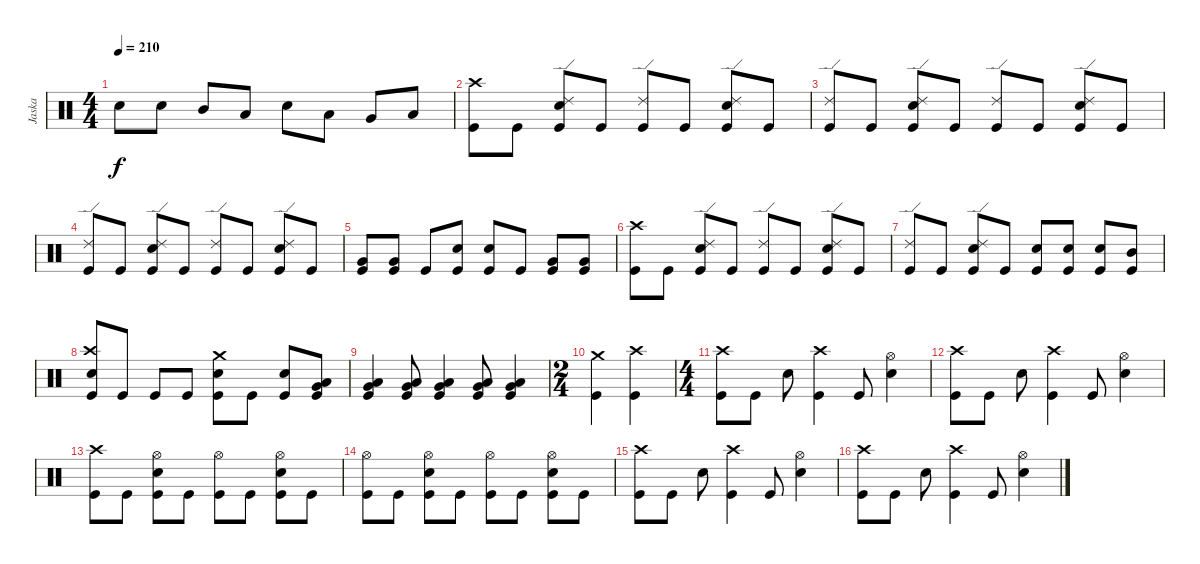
\track ("Jaska" "Jaska") {instrument percussion}
\staff {score}
\articulation defaults
\ts (4 4)
\tempo 210
\clef neutral
\ks c "Electric Snare (hit)".8{dy f} "Electric Snare (hit)".8 "Mid Tom (hit)".8 "Low Tom (hit)".8 "Electric Snare (hit)".8 "Low Tom (hit)".8 "Very Low Tom (hit)".8 "Low Floor Tom (hit)".8
|
("Crash high (hit)" "Kick (hit)").8 "Kick (hit)".8 ("Ride (edge) 2" "Electric Snare (hit)" "Kick (hit)").8 "Kick (hit)".8 ("Ride (edge) 2" "Kick (hit)").8 "Kick (hit)".8 ("Ride (edge) 2" "Electric Snare (hit)" "Kick (hit)").8 "Kick (hit)".8 |
("Ride (edge) 2" "Kick (hit)").8 "Kick (hit)".8 ("Ride (edge) 2" "Electric Snare (hit)" "Kick (hit)").8 "Kick (hit)".8 ("Ride (edge) 2" "Kick (hit)").8 "Kick (hit)".8 ("Ride (edge) 2" "Electric Snare (hit)" "Kick (hit)").8 "Kick (hit)".8 |
("Ride (edge) 2" "Kick (hit)").8 "Kick (hit)".8 ("Ride (edge) 2" "Electric Snare (hit)" "Kick (hit)").8 "Kick (hit)".8 ("Ride (edge) 2" "Kick (hit)").8 "Kick (hit)".8 ("Ride (edge) 2" "Electric Snare (hit)" "Kick (hit)").8 "Kick (hit)".8 |
("Very Low Tom (hit)" "Kick (hit)").8 ("Very Low Tom (hit)" "Kick (hit)").8 "Kick (hit)".8 ("Electric Snare (hit)" "Kick (hit)").8 ("Electric Snare (hit)" "Kick (hit)").8 "Kick (hit)".8 ("Very Low Tom (hit)" "Kick (hit)").8 ("Very Low Tom (hit)" "Kick (hit)").8 |
("Crash high (hit)" "Kick (hit)").8 "Kick (hit)".8 ("Ride (edge) 2" "Electric Snare (hit)" "Kick (hit)").8 "Kick (hit)".8 ("Ride (edge) 2" "Kick (hit)").8 "Kick (hit)".8 ("Ride (edge) 2" "Electric Snare (hit)" "Kick (hit)").8 "Kick (hit)".8 |
("Ride (edge) 2" "Kick (hit)").8 "Kick (hit)".8 ("Ride (edge) 2" "Electric Snare (hit)" "Kick (hit)").8 "Kick (hit)".8 ("Electric Snare (hit)" "Kick (hit)").8 ("Electric Snare (hit)" "Kick (hit)").8 ("Electric Snare (hit)" "Kick (hit)").8 ("Mid Tom (hit)" "Kick (hit)").8 |
("Crash high (hit)" "Electric Snare (hit)" "Kick (hit)").8 "Kick (hit)".8 "Kick (hit)".8 "Kick (hit)".8 ("Crash medium (hit)" "Electric Snare (hit)" "Kick (hit)").8 "Kick (hit)".8 ("Electric Snare (hit)" "Kick (hit)").8 ("Low Floor Tom (hit)" "Very Low Tom (hit)" "Kick (hit)").8 |
("Low Floor Tom (hit)" "Very Low Tom (hit)" "Kick (hit)").4 ("Low Floor Tom (hit)" "Very Low Tom (hit)" "Kick (hit)").8 ("Low Floor Tom (hit)" "Very Low Tom (hit)" "Kick (hit)").4 ("Low Floor Tom (hit)" "Very Low Tom (hit)" "Kick (hit)").8 ("Low Floor Tom (hit)" "Very Low Tom (hit)" "Kick (hit)").4 |
\ts (2 4)
("Crash medium (hit)" "Kick (hit)").4 ("Crash high (hit)" "Kick (hit)").4 |
\ts (4 4)
("Crash high (hit)" "Kick (hit)").8 "Kick (hit)".8 "Electric Snare (hit)".8 ("Crash high (hit)" "Kick (hit)").4 "Kick (hit)".8 ("Hi-Hat (open)" "Electric Snare (hit)").4 |
("Crash high (hit)" "Kick (hit)").8 "Kick (hit)".8 "Electric Snare (hit)".8 ("Crash high (hit)" "Kick (hit)").4 "Kick (hit)".8 ("Hi-Hat (open)" "Electric Snare (hit)").4 |
("Crash high (hit)" "Kick (hit)").8 "Kick (hit)".8 ("Hi-Hat (open)" "Electric Snare (hit)" "Kick (hit)").8 "Kick (hit)".8 ("Hi-Hat (open)" "Kick (hit)").8 "Kick (hit)".8 ("Hi-Hat (open)" "Electric Snare (hit)" "Kick (hit)").8 "Kick (hit)".8 |
("Hi-Hat (open)" "Kick (hit)").8 "Kick (hit)".8 ("Hi-Hat (open)" "Electric Snare (hit)" "Kick (hit)").8 "Kick (hit)".8 ("Hi-Hat (open)" "Kick (hit)").8 "Kick (hit)".8 ("Hi-Hat (open)" "Electric Snare (hit)" "Kick (hit)").8 "Kick (hit)".8 |
("Crash high (hit)" "Kick (hit)").8 "Kick (hit)".8 "Electric Snare (hit)".8 ("Crash high (hit)" "Kick (hit)").4 "Kick (hit)".8 ("Hi-Hat (open)" "Electric Snare (hit)").4 |
("Crash high (hit)" "Kick (hit)").8 "Kick (hit)".8 "Electric Snare (hit)".8 ("Crash high (hit)" "Kick (hit)").4 "Kick (hit)".8 ("Hi-Hat (open)" "Electric Snare (hit)").4
